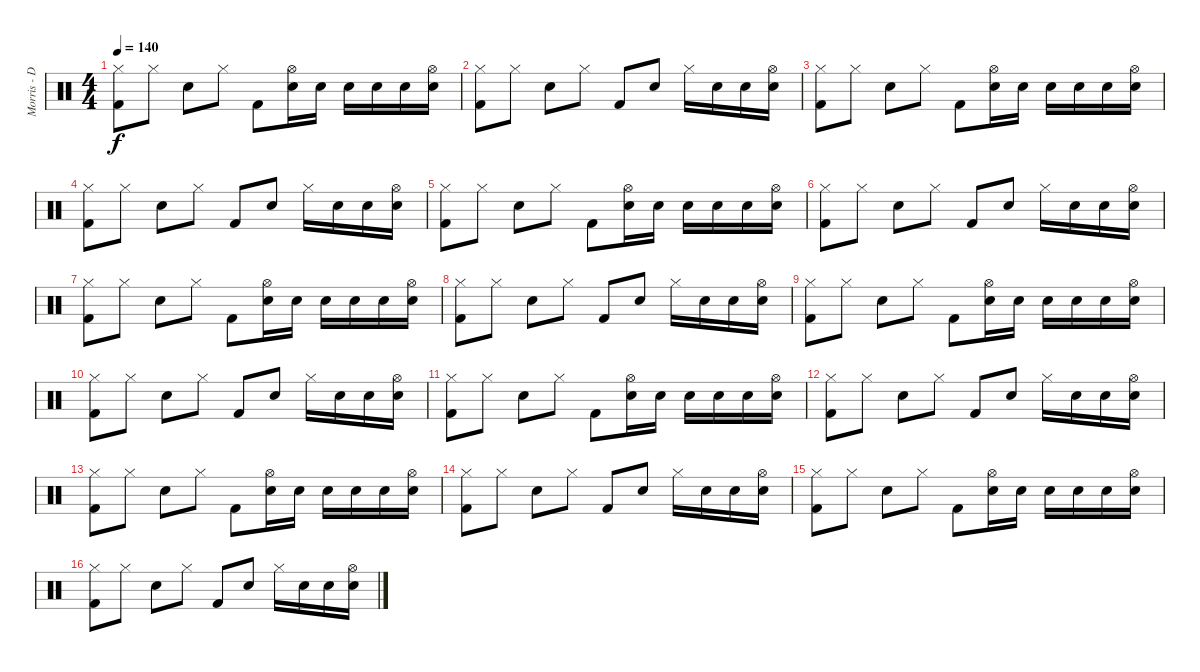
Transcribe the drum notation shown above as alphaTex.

\track ("Morris - Drums" "Morris - D") {instrument percussion}
\staff {score}
\articulation defaults
\ts (4 4)
\tempo 140
\clef neutral
\ks c
("Kick (hit) 2" "Hi-Hat (closed)").8{dy f} "Hi-Hat (closed)".8 "Snare (hit) 2".8 "Hi-Hat (closed)".8 "Kick (hit) 2".8 ("Snare (hit) 2" "Hi-Hat (open)").16 "Snare (hit) 2".16 "Snare (hit) 2".16 "Snare (hit) 2".16 "Snare (hit) 2".16 ("Snare (hit) 2" "Hi-Hat (open)").16 |
("Kick (hit) 2" "Hi-Hat (closed)").8 "Hi-Hat (closed)".8 "Snare (hit) 2".8 "Hi-Hat (closed)".8 "Kick (hit) 2".8 "Snare (hit) 2".8 "Hi-Hat (closed)".16 "Snare (hit) 2".16 "Snare (hit) 2".16 ("Snare (hit) 2" "Hi-Hat (open)").16 |
("Kick (hit) 2" "Hi-Hat (closed)").8 "Hi-Hat (closed)".8 "Snare (hit) 2".8 "Hi-Hat (closed)".8 "Kick (hit) 2".8 ("Electric Snare (hit)" "Hi-Hat (open)").16 "Electric Snare (hit)".16 "Electric Snare (hit)".16 "Electric Snare (hit)".16 "Electric Snare (hit)".16 ("Electric Snare (hit)" "Hi-Hat (open)").16 |
("Kick (hit) 2" "Hi-Hat (closed)").8 "Hi-Hat (closed)".8 "Snare (hit) 2".8 "Hi-Hat (closed)".8 "Kick (hit) 2".8 "Snare (hit) 2".8 "Hi-Hat (closed)".16 "Electric Snare (hit)".16 "Electric Snare (hit)".16 ("Electric Snare (hit)" "Hi-Hat (open)").16 |
("Kick (hit) 2" "Hi-Hat (closed)").8 "Hi-Hat (closed)".8 "Snare (hit) 2".8 "Hi-Hat (closed)".8 "Kick (hit) 2".8 ("Electric Snare (hit)" "Hi-Hat (open)").16 "Electric Snare (hit)".16 "Electric Snare (hit)".16 "Electric Snare (hit)".16 "Electric Snare (hit)".16 ("Electric Snare (hit)" "Hi-Hat (open)").16 |
("Kick (hit) 2" "Hi-Hat (closed)").8 "Hi-Hat (closed)".8 "Snare (hit) 2".8 "Hi-Hat (closed)".8 "Kick (hit) 2".8 "Snare (hit) 2".8 "Hi-Hat (closed)".16 "Electric Snare (hit)".16 "Electric Snare (hit)".16 ("Electric Snare (hit)" "Hi-Hat (open)").16 |
("Kick (hit) 2" "Hi-Hat (closed)").8 "Hi-Hat (closed)".8 "Snare (hit) 2".8 "Hi-Hat (closed)".8 "Kick (hit) 2".8 ("Electric Snare (hit)" "Hi-Hat (open)").16 "Electric Snare (hit)".16 "Electric Snare (hit)".16 "Electric Snare (hit)".16 "Electric Snare (hit)".16 ("Electric Snare (hit)" "Hi-Hat (open)").16 |
("Kick (hit) 2" "Hi-Hat (closed)").8 "Hi-Hat (closed)".8 "Snare (hit) 2".8 "Hi-Hat (closed)".8 "Kick (hit) 2".8 "Snare (hit) 2".8 "Hi-Hat (closed)".16 "Electric Snare (hit)".16 "Electric Snare (hit)".16 ("Electric Snare (hit)" "Hi-Hat (open)").16 |
("Kick (hit) 2" "Hi-Hat (closed)").8 "Hi-Hat (closed)".8 "Snare (hit) 2".8 "Hi-Hat (closed)".8 "Kick (hit) 2".8 ("Electric Snare (hit)" "Hi-Hat (open)").16 "Electric Snare (hit)".16 "Electric Snare (hit)".16 "Electric Snare (hit)".16 "Electric Snare (hit)".16 ("Electric Snare (hit)" "Hi-Hat (open)").16 |
("Kick (hit) 2" "Hi-Hat (closed)").8 "Hi-Hat (closed)".8 "Snare (hit) 2".8 "Hi-Hat (closed)".8 "Kick (hit) 2".8 "Snare (hit) 2".8 "Hi-Hat (closed)".16 "Electric Snare (hit)".16 "Electric Snare (hit)".16 ("Electric Snare (hit)" "Hi-Hat (open)").16 |
("Kick (hit) 2" "Hi-Hat (closed)").8 "Hi-Hat (closed)".8 "Snare (hit) 2".8 "Hi-Hat (closed)".8 "Kick (hit) 2".8 ("Electric Snare (hit)" "Hi-Hat (open)").16 "Electric Snare (hit)".16 "Electric Snare (hit)".16 "Electric Snare (hit)".16 "Electric Snare (hit)".16 ("Electric Snare (hit)" "Hi-Hat (open)").16 |
("Kick (hit) 2" "Hi-Hat (closed)").8 "Hi-Hat (closed)".8 "Snare (hit) 2".8 "Hi-Hat (closed)".8 "Kick (hit) 2".8 "Snare (hit) 2".8 "Hi-Hat (closed)".16 "Electric Snare (hit)".16 "Electric Snare (hit)".16 ("Electric Snare (hit)" "Hi-Hat (open)").16 |
("Kick (hit) 2" "Hi-Hat (closed)").8 "Hi-Hat (closed)".8 "Snare (hit) 2".8 "Hi-Hat (closed)".8 "Kick (hit) 2".8 ("Electric Snare (hit)" "Hi-Hat (open)").16 "Electric Snare (hit)".16 "Electric Snare (hit)".16 "Electric Snare (hit)".16 "Electric Snare (hit)".16 ("Electric Snare (hit)" "Hi-Hat (open)").16 |
("Kick (hit) 2" "Hi-Hat (closed)").8 "Hi-Hat (closed)".8 "Snare (hit) 2".8 "Hi-Hat (closed)".8 "Kick (hit) 2".8 "Snare (hit) 2".8 "Hi-Hat (closed)".16 "Electric Snare (hit)".16 "Electric Snare (hit)".16 ("Electric Snare (hit)" "Hi-Hat (open)").16 |
("Kick (hit) 2" "Hi-Hat (closed)").8 "Hi-Hat (closed)".8 "Snare (hit) 2".8 "Hi-Hat (closed)".8 "Kick (hit) 2".8 ("Electric Snare (hit)" "Hi-Hat (open)").16 "Electric Snare (hit)".16 "Electric Snare (hit)".16 "Electric Snare (hit)".16 "Electric Snare (hit)".16 ("Electric Snare (hit)" "Hi-Hat (open)").16 |
("Kick (hit) 2" "Hi-Hat (closed)").8 "Hi-Hat (closed)".8 "Snare (hit) 2".8 "Hi-Hat (closed)".8 "Kick (hit) 2".8 "Snare (hit) 2".8 "Hi-Hat (closed)".16 "Electric Snare (hit)".16 "Electric Snare (hit)".16 ("Electric Snare (hit)" "Hi-Hat (open)").16
